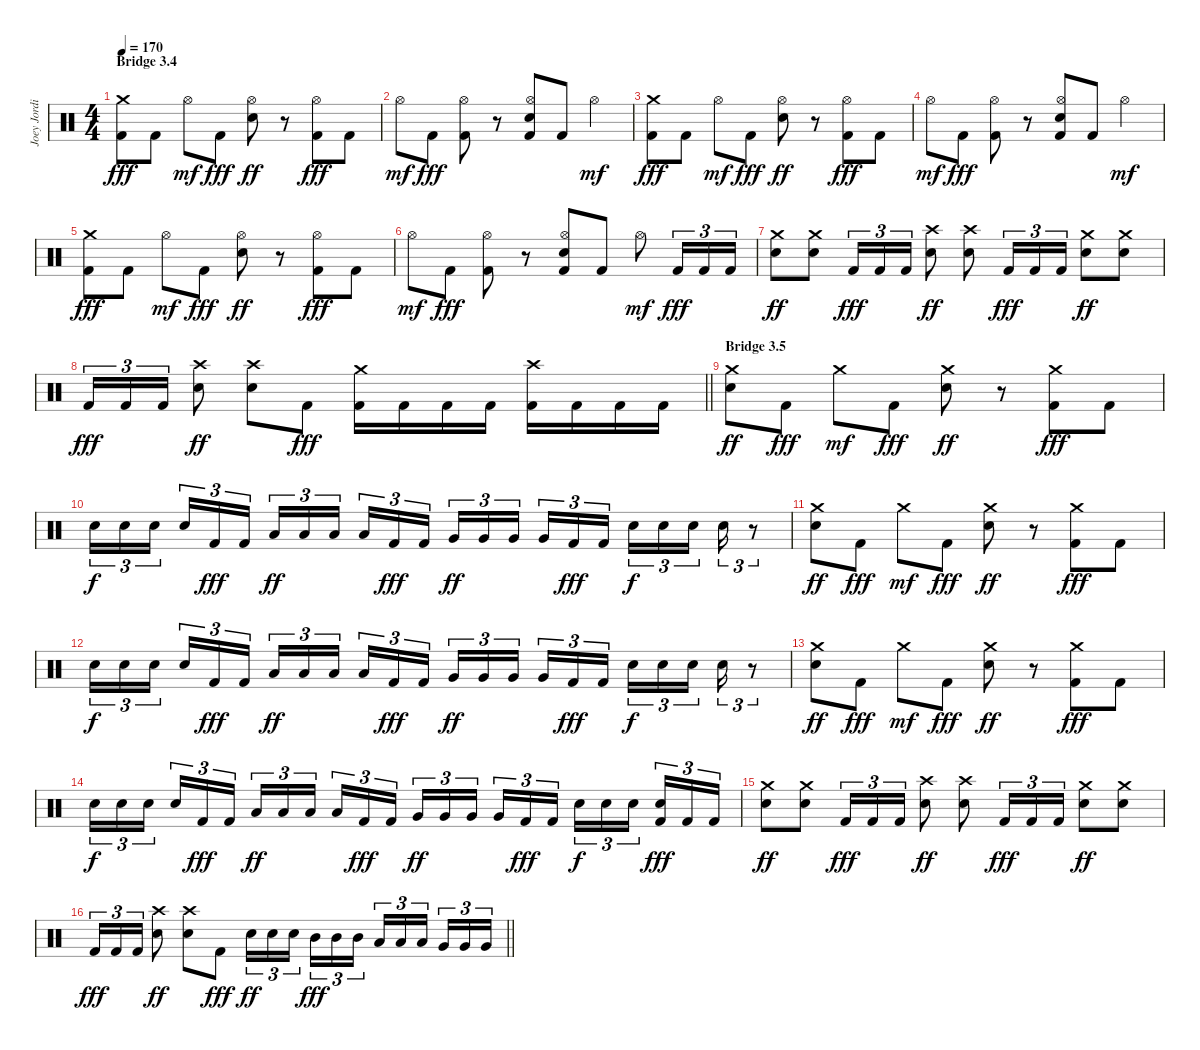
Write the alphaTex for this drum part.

\track ("Joey Jordison" "Joey Jordi") {instrument percussion}
\staff {score}
\articulation defaults
\ts (4 4)
\section ("" "Bridge 3.4")
\tempo 170
\clef neutral
\ks c
("Crash medium (hit)" "Kick (hit) 2").8{dy fff} "Kick (hit) 2".8 "Hi-Hat (open)".8{dy mf} "Kick (hit) 2".8{dy fff} ("Hi-Hat (open)" "Electric Snare (hit)").8{dy ff} r.8 ("Hi-Hat (open)" "Kick (hit) 2").8{dy fff} "Kick (hit) 2".8 |
"Hi-Hat (open)".8{dy mf} "Kick (hit) 2".8{dy fff} ("Hi-Hat (open)" "Kick (hit) 2").8 r.8 ("Hi-Hat (open)" "Electric Snare (hit)" "Kick (hit) 2").8 "Kick (hit) 2".8 "Hi-Hat (open)".4{dy mf} |
("Crash medium (hit)" "Kick (hit) 2").8{dy fff} "Kick (hit) 2".8 "Hi-Hat (open)".8{dy mf} "Kick (hit) 2".8{dy fff} ("Hi-Hat (open)" "Electric Snare (hit)").8{dy ff} r.8 ("Hi-Hat (open)" "Kick (hit) 2").8{dy fff} "Kick (hit) 2".8 |
"Hi-Hat (open)".8{dy mf} "Kick (hit) 2".8{dy fff} ("Hi-Hat (open)" "Kick (hit) 2").8 r.8 ("Hi-Hat (open)" "Electric Snare (hit)" "Kick (hit) 2").8 "Kick (hit) 2".8 "Hi-Hat (open)".4{dy mf} |
("Crash medium (hit)" "Kick (hit) 2").8{dy fff} "Kick (hit) 2".8 "Hi-Hat (open)".8{dy mf} "Kick (hit) 2".8{dy fff} ("Hi-Hat (open)" "Electric Snare (hit)").8{dy ff} r.8 ("Hi-Hat (open)" "Kick (hit) 2").8{dy fff} "Kick (hit) 2".8 |
"Hi-Hat (open)".8{dy mf} "Kick (hit) 2".8{dy fff} ("Hi-Hat (open)" "Kick (hit) 2").8 r.8 ("Hi-Hat (open)" "Electric Snare (hit)" "Kick (hit) 2").8 "Kick (hit) 2".8 "Hi-Hat (open)".8{dy mf} "Kick (hit) 2".16{tu (3 2) dy fff} "Kick (hit) 2".16{tu (3 2)} "Kick (hit) 2".16{tu (3 2)} |
("Crash medium (hit)" "Electric Snare (hit)").8{dy ff} ("Crash medium (hit)" "Electric Snare (hit)").8 "Kick (hit) 2".16{tu (3 2) dy fff} "Kick (hit) 2".16{tu (3 2)} "Kick (hit) 2".16{tu (3 2)} ("Crash high (hit)" "Electric Snare (hit)").8{dy ff} ("Crash high (hit)" "Electric Snare (hit)").8 "Kick (hit) 2".16{tu (3 2) dy fff} "Kick (hit) 2".16{tu (3 2)} "Kick (hit) 2".16{tu (3 2)} ("Crash medium (hit)" "Electric Snare (hit)").8{dy ff} ("Crash medium (hit)" "Electric Snare (hit)").8 |
\barLineRight lightlight "Kick (hit) 2".16{tu (3 2) dy fff} "Kick (hit) 2".16{tu (3 2)} "Kick (hit) 2".16{tu (3 2)}
("Crash high (hit)" "Electric Snare (hit)").8{dy ff} ("Crash high (hit)" "Electric Snare (hit)").8 "Kick (hit) 2".8{dy fff} ("Crash medium (hit)" "Kick (hit) 2").16 "Kick (hit) 2".16 "Kick (hit) 2".16 "Kick (hit) 2".16 ("Crash high (hit)" "Kick (hit) 2").16 "Kick (hit) 2".16 "Kick (hit) 2".16 "Kick (hit) 2".16 |
\section ("" "Bridge 3.5")
("Crash medium (hit)" "Electric Snare (hit)").8{dy ff} "Kick (hit) 2".8{dy fff} "Crash medium (hit)".8{dy mf} "Kick (hit) 2".8{dy fff} ("Crash medium (hit)" "Electric Snare (hit)").8{dy ff} r.8 ("Crash medium (hit)" "Kick (hit) 2").8{dy fff} "Kick (hit) 2".8 |
"Electric Snare (hit)".16{tu (3 2) dy f} "Electric Snare (hit)".16{tu (3 2)} "Electric Snare (hit)".16{tu (3 2) beam splitsecondary} "Electric Snare (hit)".16{tu (3 2)} "Kick (hit) 2".16{tu (3 2) dy fff} "Kick (hit) 2".16{tu (3 2)} "Low Tom (hit)".16{tu (3 2) dy ff} "Low Tom (hit)".16{tu (3 2)} "Low Tom (hit)".16{tu (3 2) beam splitsecondary} "Low Tom (hit)".16{tu (3 2)} "Kick (hit) 2".16{tu (3 2) dy fff} "Kick (hit) 2".16{tu (3 2)} "Very Low Tom (hit)".16{tu (3 2) dy ff} "Very Low Tom (hit)".16{tu (3 2)} "Very Low Tom (hit)".16{tu (3 2) beam splitsecondary} "Very Low Tom (hit)".16{tu (3 2)} "Kick (hit) 2".16{tu (3 2) dy fff} "Kick (hit) 2".16{tu (3 2)} "Electric Snare (hit)".16{tu (3 2) dy f} "Electric Snare (hit)".16{tu (3 2)} "Electric Snare (hit)".16{tu (3 2) beam splitsecondary} "Electric Snare (hit)".16{tu (3 2)} r.8{tu (3 2)} |
("Crash medium (hit)" "Electric Snare (hit)").8{dy ff} "Kick (hit) 2".8{dy fff} "Crash medium (hit)".8{dy mf} "Kick (hit) 2".8{dy fff} ("Crash medium (hit)" "Electric Snare (hit)").8{dy ff} r.8 ("Crash medium (hit)" "Kick (hit) 2").8{dy fff} "Kick (hit) 2".8 |
"Electric Snare (hit)".16{tu (3 2) dy f} "Electric Snare (hit)".16{tu (3 2)} "Electric Snare (hit)".16{tu (3 2) beam splitsecondary} "Electric Snare (hit)".16{tu (3 2)} "Kick (hit) 2".16{tu (3 2) dy fff} "Kick (hit) 2".16{tu (3 2)} "Low Tom (hit)".16{tu (3 2) dy ff} "Low Tom (hit)".16{tu (3 2)} "Low Tom (hit)".16{tu (3 2) beam splitsecondary} "Low Tom (hit)".16{tu (3 2)} "Kick (hit) 2".16{tu (3 2) dy fff} "Kick (hit) 2".16{tu (3 2)} "Very Low Tom (hit)".16{tu (3 2) dy ff} "Very Low Tom (hit)".16{tu (3 2)} "Very Low Tom (hit)".16{tu (3 2) beam splitsecondary} "Very Low Tom (hit)".16{tu (3 2)} "Kick (hit) 2".16{tu (3 2) dy fff} "Kick (hit) 2".16{tu (3 2)} "Electric Snare (hit)".16{tu (3 2) dy f} "Electric Snare (hit)".16{tu (3 2)} "Electric Snare (hit)".16{tu (3 2) beam splitsecondary} "Electric Snare (hit)".16{tu (3 2)} r.8{tu (3 2)} |
("Crash medium (hit)" "Electric Snare (hit)").8{dy ff} "Kick (hit) 2".8{dy fff} "Crash medium (hit)".8{dy mf} "Kick (hit) 2".8{dy fff} ("Crash medium (hit)" "Electric Snare (hit)").8{dy ff} r.8 ("Crash medium (hit)" "Kick (hit) 2").8{dy fff} "Kick (hit) 2".8 |
"Electric Snare (hit)".16{tu (3 2) dy f} "Electric Snare (hit)".16{tu (3 2)} "Electric Snare (hit)".16{tu (3 2) beam splitsecondary} "Electric Snare (hit)".16{tu (3 2)} "Kick (hit) 2".16{tu (3 2) dy fff} "Kick (hit) 2".16{tu (3 2)} "Low Tom (hit)".16{tu (3 2) dy ff} "Low Tom (hit)".16{tu (3 2)} "Low Tom (hit)".16{tu (3 2) beam splitsecondary} "Low Tom (hit)".16{tu (3 2)} "Kick (hit) 2".16{tu (3 2) dy fff} "Kick (hit) 2".16{tu (3 2)} "Very Low Tom (hit)".16{tu (3 2) dy ff} "Very Low Tom (hit)".16{tu (3 2)} "Very Low Tom (hit)".16{tu (3 2) beam splitsecondary} "Very Low Tom (hit)".16{tu (3 2)} "Kick (hit) 2".16{tu (3 2) dy fff} "Kick (hit) 2".16{tu (3 2)} "Electric Snare (hit)".16{tu (3 2) dy f} "Electric Snare (hit)".16{tu (3 2)} "Electric Snare (hit)".16{tu (3 2) beam splitsecondary} ("Electric Snare (hit)" "Kick (hit) 2").16{tu (3 2) dy fff} "Kick (hit) 2".16{tu (3 2)} "Kick (hit) 2".16{tu (3 2)} |
("Crash medium (hit)" "Electric Snare (hit)").8{dy ff} ("Crash medium (hit)" "Electric Snare (hit)").8 "Kick (hit) 2".16{tu (3 2) dy fff} "Kick (hit) 2".16{tu (3 2)} "Kick (hit) 2".16{tu (3 2)} ("Crash high (hit)" "Electric Snare (hit)").8{dy ff} ("Crash high (hit)" "Electric Snare (hit)").8 "Kick (hit) 2".16{tu (3 2) dy fff} "Kick (hit) 2".16{tu (3 2)} "Kick (hit) 2".16{tu (3 2)} ("Crash medium (hit)" "Electric Snare (hit)").8{dy ff} ("Crash medium (hit)" "Electric Snare (hit)").8 |
\barLineRight lightlight "Kick (hit) 2".16{tu (3 2) dy fff} "Kick (hit) 2".16{tu (3 2)} "Kick (hit) 2".16{tu (3 2)}
("Crash high (hit)" "Electric Snare (hit)").8{dy ff} ("Crash high (hit)" "Electric Snare (hit)").8 "Kick (hit) 2".8{dy fff} "Electric Snare (hit)".16{tu (3 2) dy ff} "Electric Snare (hit)".16{tu (3 2)} "Electric Snare (hit)".16{tu (3 2) beam splitsecondary} "Mid Tom (hit)".16{tu (3 2) dy fff} "Mid Tom (hit)".16{tu (3 2)} "Mid Tom (hit)".16{tu (3 2)} "Low Tom (hit)".16{tu (3 2)} "Low Tom (hit)".16{tu (3 2)} "Low Tom (hit)".16{tu (3 2) beam splitsecondary} "Very Low Tom (hit)".16{tu (3 2)} "Very Low Tom (hit)".16{tu (3 2)} "Very Low Tom (hit)".16{tu (3 2)}
